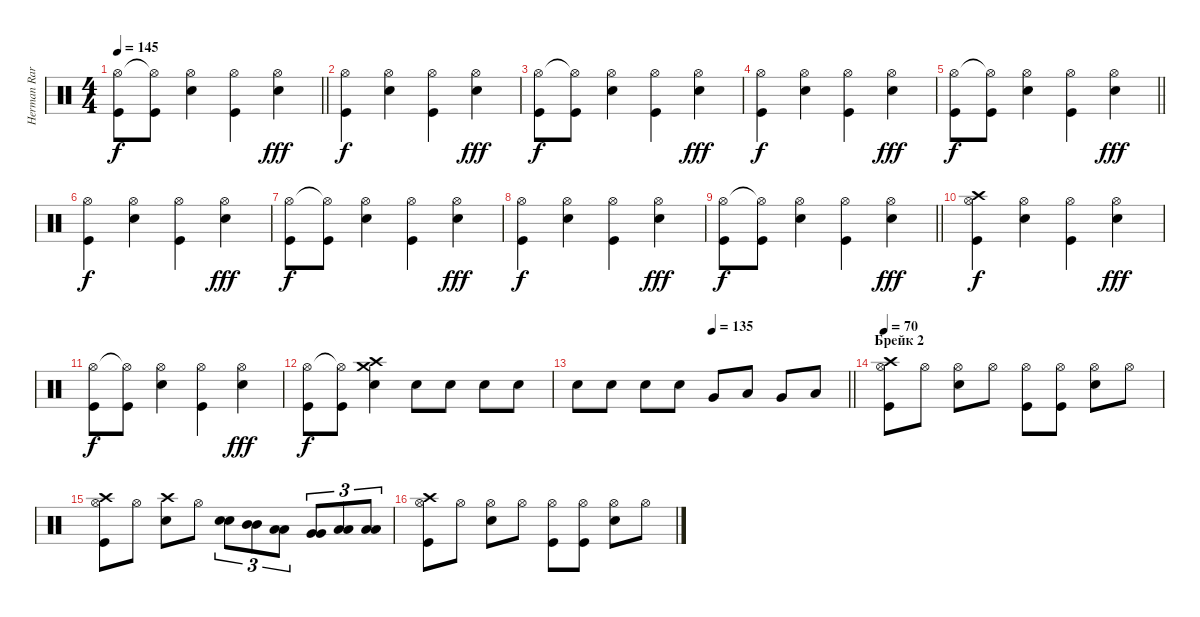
\track ("Herman Rarebell" "Herman Rar") {instrument percussion}
\staff {score}
\articulation defaults
\ts (4 4)
\tempo 145
\clef neutral
\barLineRight lightlight
\ks c
("Hi-Hat (open)" "Kick (hit)").8{dy f} ("Hi-Hat (open)"{t} "Kick (hit)").8 ("Hi-Hat (open)" "Snare (hit) 2").4 ("Hi-Hat (open)" "Kick (hit)").4 ("Hi-Hat (open)" "Snare (hit) 2").4{dy fff} |
("Hi-Hat (open)" "Kick (hit)").4{dy f} ("Hi-Hat (open)" "Snare (hit) 2").4 ("Hi-Hat (open)" "Kick (hit)").4 ("Hi-Hat (open)" "Snare (hit) 2").4{dy fff} |
("Hi-Hat (open)" "Kick (hit)").8{dy f} ("Hi-Hat (open)"{t} "Kick (hit)").8 ("Hi-Hat (open)" "Snare (hit) 2").4 ("Hi-Hat (open)" "Kick (hit)").4 ("Hi-Hat (open)" "Snare (hit) 2").4{dy fff} |
("Hi-Hat (open)" "Kick (hit)").4{dy f} ("Hi-Hat (open)" "Snare (hit) 2").4 ("Hi-Hat (open)" "Kick (hit)").4 ("Hi-Hat (open)" "Snare (hit) 2").4{dy fff} |
\barLineRight lightlight
("Hi-Hat (open)" "Kick (hit)").8{dy f} ("Hi-Hat (open)"{t} "Kick (hit)").8 ("Hi-Hat (open)" "Snare (hit) 2").4 ("Hi-Hat (open)" "Kick (hit)").4 ("Hi-Hat (open)" "Snare (hit) 2").4{dy fff} |
("Hi-Hat (open)" "Kick (hit)").4{dy f} ("Hi-Hat (open)" "Snare (hit) 2").4 ("Hi-Hat (open)" "Kick (hit)").4 ("Hi-Hat (open)" "Snare (hit) 2").4{dy fff} |
("Hi-Hat (open)" "Kick (hit)").8{dy f} ("Hi-Hat (open)"{t} "Kick (hit)").8 ("Hi-Hat (open)" "Snare (hit) 2").4 ("Hi-Hat (open)" "Kick (hit)").4 ("Hi-Hat (open)" "Snare (hit) 2").4{dy fff} |
("Hi-Hat (open)" "Kick (hit)").4{dy f} ("Hi-Hat (open)" "Snare (hit) 2").4 ("Hi-Hat (open)" "Kick (hit)").4 ("Hi-Hat (open)" "Snare (hit) 2").4{dy fff} |
\barLineRight lightlight
("Hi-Hat (open)" "Kick (hit)").8{dy f} ("Hi-Hat (open)"{t} "Kick (hit)").8 ("Hi-Hat (open)" "Snare (hit) 2").4 ("Hi-Hat (open)" "Kick (hit)").4 ("Hi-Hat (open)" "Snare (hit) 2").4{dy fff} |
("Hi-Hat (open)" "Crash high (hit)" "Kick (hit)").4{dy f} ("Hi-Hat (open)" "Snare (hit) 2").4 ("Hi-Hat (open)" "Kick (hit)").4 ("Hi-Hat (open)" "Snare (hit) 2").4{dy fff} |
("Hi-Hat (open)" "Kick (hit)").8{dy f} ("Hi-Hat (open)"{t} "Kick (hit)").8 ("Hi-Hat (open)" "Snare (hit) 2").4 ("Hi-Hat (open)" "Kick (hit)").4 ("Hi-Hat (open)" "Snare (hit) 2").4{dy fff} |
("Hi-Hat (open)" "Kick (hit)").8{dy f} ("Hi-Hat (open)"{t} "Kick (hit)").8 ("Crash medium (hit)" "Snare (hit) 2" "Crash high (hit)").4 "Snare (hit) 2".8 "Snare (hit) 2".8 "Snare (hit) 2".8 "Snare (hit) 2".8 |
\tempo (135 0.5)
\barLineRight lightlight "Snare (hit) 2".8 "Snare (hit) 2".8 "Snare (hit) 2".8 "Snare (hit) 2".8 "Very Low Tom (hit)".8 "Low Tom (hit)".8 "Very Low Tom (hit)".8 "Low Tom (hit)".8
|
\section ("" "Брейк 2")
\tempo 70
("Hi-Hat (open)" "Crash high (hit)" "Kick (hit)").8 "Hi-Hat (open)".8 ("Hi-Hat (open)" "Snare (hit) 2").8 "Hi-Hat (open)".8 ("Hi-Hat (open)" "Kick (hit)").8 ("Hi-Hat (open)" "Kick (hit)").8 ("Hi-Hat (open)" "Snare (hit) 2").8 "Hi-Hat (open)".8 |
("Hi-Hat (open)" "Crash high (hit)" "Kick (hit)").8 "Hi-Hat (open)".8 ("Crash high (hit)" "Snare (hit) 2").8 "Hi-Hat (open)".8 ("Snare (hit) 2" "Snare (hit) 2").8{tu (3 2)} ("Mid Tom (hit)" "Mid Tom (hit)").8{tu (3 2)} ("Low Tom (hit)" "Low Tom (hit)").8{tu (3 2)} ("Very Low Tom (hit)" "Very Low Tom (hit)").8{tu (3 2)} ("Low Floor Tom (hit)" "Low Floor Tom (hit)").8{tu (3 2)} ("Low Floor Tom (hit)" "Low Floor Tom (hit)").8{tu (3 2)} |
("Hi-Hat (open)" "Crash high (hit)" "Kick (hit)").8 "Hi-Hat (open)".8 ("Hi-Hat (open)" "Snare (hit) 2").8 "Hi-Hat (open)".8 ("Hi-Hat (open)" "Kick (hit)").8 ("Hi-Hat (open)" "Kick (hit)").8 ("Hi-Hat (open)" "Snare (hit) 2").8 "Hi-Hat (open)".8
